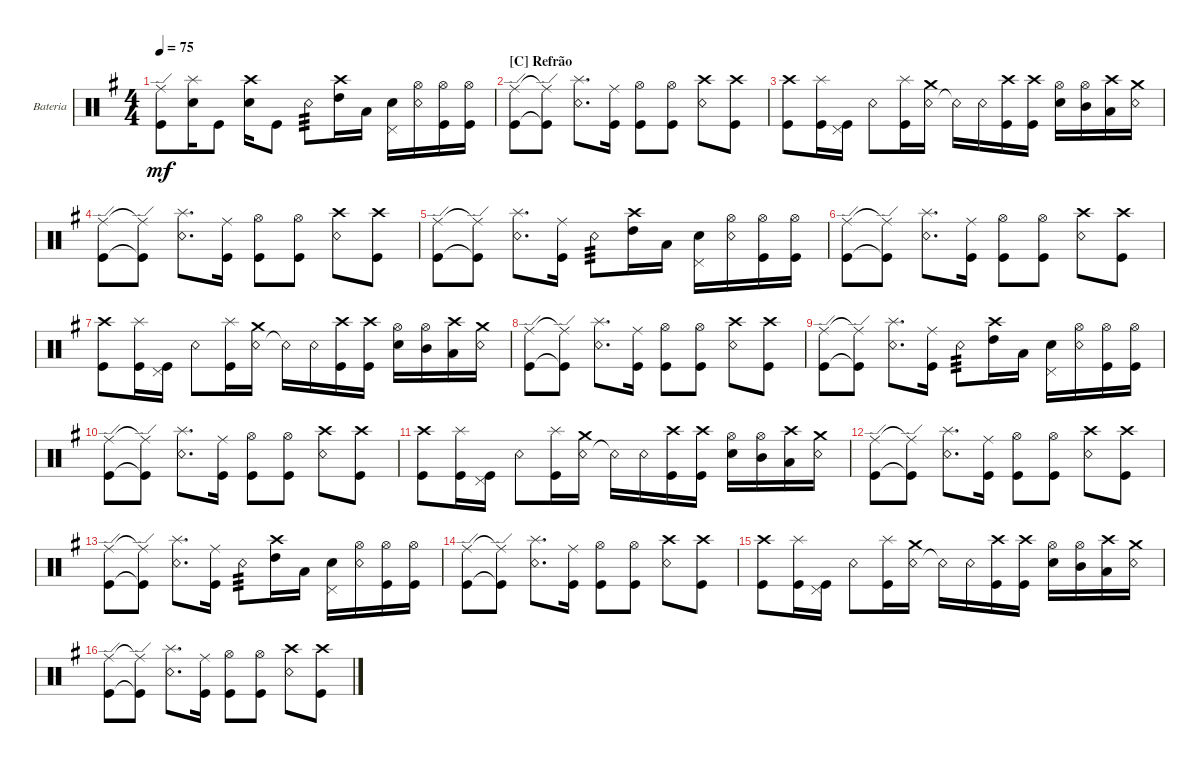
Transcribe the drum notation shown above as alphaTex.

\defaultSystemsLayout 4
\bracketExtendMode groupsimilarinstruments
\firstSystemTrackNameOrientation horizontal
\otherSystemsTrackNameOrientation horizontal
\track ("Bateria" "Bateria") {multiBarRest instrument percussion}
\staff {score}
\articulation defaults
\ts (4 4)
\tempo 75
\clef neutral
\ks g
("Ride (edge)" "Kick (hit)").8{dy mf} ("Snare (hit) 2" "Splash (hit)").16 "Kick (hit)".8 ("Snare (hit) 2" "Crash high (hit)").16 "Kick (hit)".8 "Snare (rim shot)".8{tp 3} ("High Tom (hit)" "Crash high (hit)").16 "Low Tom (hit)".16 ("Snare (hit) 2" "Pedal Hi-Hat (hit)").16 ("Snare (rim shot)" "Hi-Hat (open)").16 ("Kick (hit)" "Hi-Hat (open)").16 ("Kick (hit)" "Hi-Hat (open)").16 |
\section ("C" "Refrão")
("Kick (hit)" "Ride (edge)").8 ("Kick (hit)"{t} "Ride (edge)"{t}).8 ("Snare (rim shot)" "Splash (hit)").8{d} ("Kick (hit)" "Ride (middle)").16 ("Kick (hit)" "Hi-Hat (open)").8 ("Kick (hit)" "Hi-Hat (open)").8 ("Snare (rim shot)" "Crash high (hit)").8 ("Kick (hit)" "Crash high (hit)").8 |
("Kick (hit)" "Crash high (hit)").8 ("Kick (hit)" "Splash (hit)").16 ("Kick (hit)" "Pedal Hi-Hat (hit)").16 "Snare (rim shot)".8 ("Kick (hit)" "Splash (hit)").16 ("Snare (rim shot)" "Crash medium (hit)").16 "Snare (rim shot)"{t}.16 "Snare (rim shot)".16 ("Kick (hit)" "Crash high (hit)").16 ("Kick (hit)" "Crash high (hit)").16 ("Snare (hit) 2" "Hi-Hat (open)").16 ("Mid Tom (hit)" "Hi-Hat (open)").16 ("Low Tom (hit)" "Crash high (hit)").16 ("Snare (rim shot)" "Crash medium (hit)").16 |
("Kick (hit)" "Ride (edge)").8 ("Kick (hit)"{t} "Ride (edge)"{t}).8 ("Snare (rim shot)" "Splash (hit)").8{d} ("Kick (hit)" "Ride (middle)").16 ("Kick (hit)" "Hi-Hat (open)").8 ("Kick (hit)" "Hi-Hat (open)").8 ("Snare (rim shot)" "Crash high (hit)").8 ("Kick (hit)" "Crash high (hit)").8 |
("Kick (hit)" "Ride (edge)").8 ("Kick (hit)"{t} "Ride (edge)"{t}).8 ("Snare (rim shot)" "Splash (hit)").8{d} ("Kick (hit)" "Ride (middle)").16 "Snare (rim shot)".8{tp 3} ("High Tom (hit)" "Crash high (hit)").16 "Low Tom (hit)".16 ("Snare (hit) 2" "Pedal Hi-Hat (hit)").16 ("Snare (rim shot)" "Hi-Hat (open)").16 ("Kick (hit)" "Hi-Hat (open)").16 ("Kick (hit)" "Hi-Hat (open)").16 |
("Kick (hit)" "Ride (edge)").8 ("Kick (hit)"{t} "Ride (edge)"{t}).8 ("Snare (rim shot)" "Splash (hit)").8{d} ("Kick (hit)" "Ride (middle)").16 ("Kick (hit)" "Hi-Hat (open)").8 ("Kick (hit)" "Hi-Hat (open)").8 ("Snare (rim shot)" "Crash high (hit)").8 ("Kick (hit)" "Crash high (hit)").8 |
("Kick (hit)" "Crash high (hit)").8 ("Kick (hit)" "Splash (hit)").16 ("Kick (hit)" "Pedal Hi-Hat (hit)").16 "Snare (rim shot)".8 ("Kick (hit)" "Splash (hit)").16 ("Snare (rim shot)" "Crash medium (hit)").16 "Snare (rim shot)"{t}.16 "Snare (rim shot)".16 ("Kick (hit)" "Crash high (hit)").16 ("Kick (hit)" "Crash high (hit)").16 ("Snare (hit) 2" "Hi-Hat (open)").16 ("Mid Tom (hit)" "Hi-Hat (open)").16 ("Low Tom (hit)" "Crash high (hit)").16 ("Snare (rim shot)" "Crash medium (hit)").16 |
("Kick (hit)" "Ride (edge)").8 ("Kick (hit)"{t} "Ride (edge)"{t}).8 ("Snare (rim shot)" "Splash (hit)").8{d} ("Kick (hit)" "Ride (middle)").16 ("Kick (hit)" "Hi-Hat (open)").8 ("Kick (hit)" "Hi-Hat (open)").8 ("Snare (rim shot)" "Crash high (hit)").8 ("Kick (hit)" "Crash high (hit)").8 |
("Kick (hit)" "Ride (edge)").8 ("Kick (hit)"{t} "Ride (edge)"{t}).8 ("Snare (rim shot)" "Splash (hit)").8{d} ("Kick (hit)" "Ride (middle)").16 "Snare (rim shot)".8{tp 3} ("High Tom (hit)" "Crash high (hit)").16 "Low Tom (hit)".16 ("Snare (hit) 2" "Pedal Hi-Hat (hit)").16 ("Snare (rim shot)" "Hi-Hat (open)").16 ("Kick (hit)" "Hi-Hat (open)").16 ("Kick (hit)" "Hi-Hat (open)").16 |
("Kick (hit)" "Ride (edge)").8 ("Kick (hit)"{t} "Ride (edge)"{t}).8 ("Snare (rim shot)" "Splash (hit)").8{d} ("Kick (hit)" "Ride (middle)").16 ("Kick (hit)" "Hi-Hat (open)").8 ("Kick (hit)" "Hi-Hat (open)").8 ("Snare (rim shot)" "Crash high (hit)").8 ("Kick (hit)" "Crash high (hit)").8 |
("Kick (hit)" "Crash high (hit)").8 ("Kick (hit)" "Splash (hit)").16 ("Kick (hit)" "Pedal Hi-Hat (hit)").16 "Snare (rim shot)".8 ("Kick (hit)" "Splash (hit)").16 ("Snare (rim shot)" "Crash medium (hit)").16 "Snare (rim shot)"{t}.16 "Snare (rim shot)".16 ("Kick (hit)" "Crash high (hit)").16 ("Kick (hit)" "Crash high (hit)").16 ("Snare (hit) 2" "Hi-Hat (open)").16 ("Mid Tom (hit)" "Hi-Hat (open)").16 ("Low Tom (hit)" "Crash high (hit)").16 ("Snare (rim shot)" "Crash medium (hit)").16 |
("Kick (hit)" "Ride (edge)").8 ("Kick (hit)"{t} "Ride (edge)"{t}).8 ("Snare (rim shot)" "Splash (hit)").8{d} ("Kick (hit)" "Ride (middle)").16 ("Kick (hit)" "Hi-Hat (open)").8 ("Kick (hit)" "Hi-Hat (open)").8 ("Snare (rim shot)" "Crash high (hit)").8 ("Kick (hit)" "Crash high (hit)").8 |
("Kick (hit)" "Ride (edge)").8 ("Kick (hit)"{t} "Ride (edge)"{t}).8 ("Snare (rim shot)" "Splash (hit)").8{d} ("Kick (hit)" "Ride (middle)").16 "Snare (rim shot)".8{tp 3} ("High Tom (hit)" "Crash high (hit)").16 "Low Tom (hit)".16 ("Snare (hit) 2" "Pedal Hi-Hat (hit)").16 ("Snare (rim shot)" "Hi-Hat (open)").16 ("Kick (hit)" "Hi-Hat (open)").16 ("Kick (hit)" "Hi-Hat (open)").16 |
("Kick (hit)" "Ride (edge)").8 ("Kick (hit)"{t} "Ride (edge)"{t}).8 ("Snare (rim shot)" "Splash (hit)").8{d} ("Kick (hit)" "Ride (middle)").16 ("Kick (hit)" "Hi-Hat (open)").8 ("Kick (hit)" "Hi-Hat (open)").8 ("Snare (rim shot)" "Crash high (hit)").8 ("Kick (hit)" "Crash high (hit)").8 |
("Kick (hit)" "Crash high (hit)").8 ("Kick (hit)" "Splash (hit)").16 ("Kick (hit)" "Pedal Hi-Hat (hit)").16 "Snare (rim shot)".8 ("Kick (hit)" "Splash (hit)").16 ("Snare (rim shot)" "Crash medium (hit)").16 "Snare (rim shot)"{t}.16 "Snare (rim shot)".16 ("Kick (hit)" "Crash high (hit)").16 ("Kick (hit)" "Crash high (hit)").16 ("Snare (hit) 2" "Hi-Hat (open)").16 ("Mid Tom (hit)" "Hi-Hat (open)").16 ("Low Tom (hit)" "Crash high (hit)").16 ("Snare (rim shot)" "Crash medium (hit)").16 |
("Kick (hit)" "Ride (edge)").8 ("Kick (hit)"{t} "Ride (edge)"{t}).8 ("Snare (rim shot)" "Splash (hit)").8{d} ("Kick (hit)" "Ride (middle)").16 ("Kick (hit)" "Hi-Hat (open)").8 ("Kick (hit)" "Hi-Hat (open)").8 ("Snare (rim shot)" "Crash high (hit)").8 ("Kick (hit)" "Crash high (hit)").8
